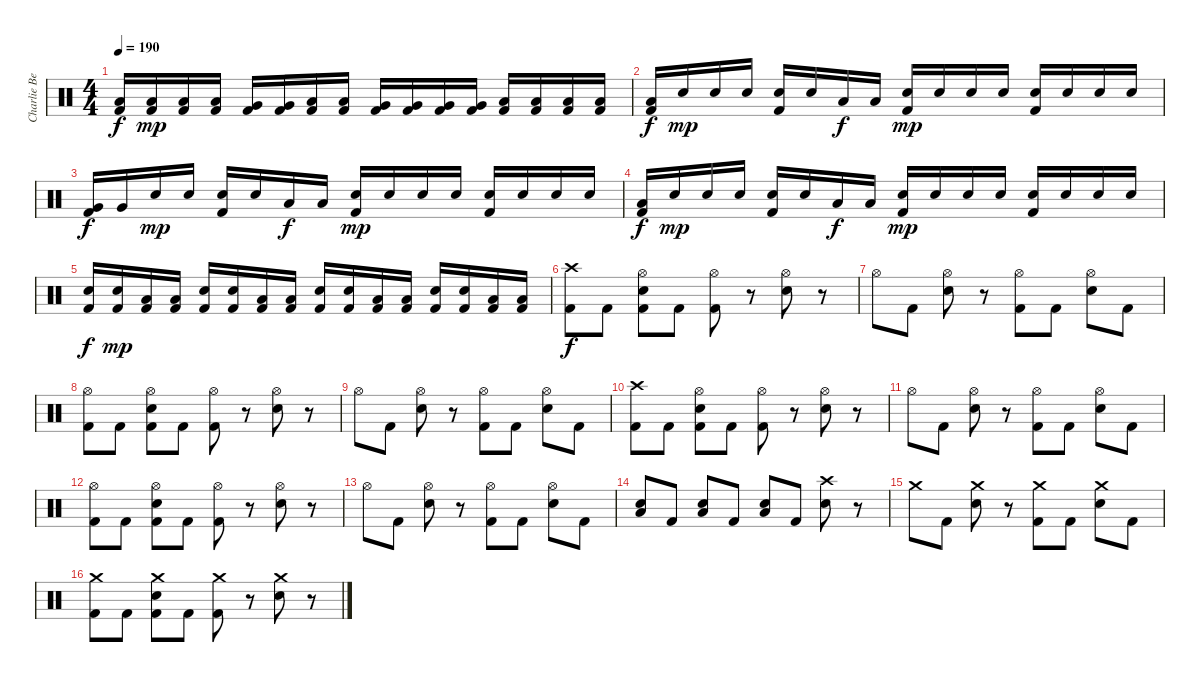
\track ("Charlie Benante" "Charlie Be") {instrument percussion}
\staff {score}
\articulation defaults
\ts (4 4)
\tempo 190
\clef neutral
\ks c
("Kick (hit) 2" "Low Tom (hit)").16{dy f} ("Kick (hit) 2" "Low Tom (hit)").16{dy mp} ("Kick (hit) 2" "Low Tom (hit)").16 ("Kick (hit) 2" "Low Tom (hit)").16 ("Kick (hit) 2" "Very Low Tom (hit)").16 ("Kick (hit) 2" "Very Low Tom (hit)").16 ("Kick (hit) 2" "Low Floor Tom (hit)").16 ("Kick (hit) 2" "Low Floor Tom (hit)").16 ("Kick (hit) 2" "Very Low Tom (hit)").16 ("Kick (hit) 2" "Very Low Tom (hit)").16 ("Kick (hit) 2" "Very Low Tom (hit)").16 ("Kick (hit) 2" "Very Low Tom (hit)").16 ("Kick (hit) 2" "Low Floor Tom (hit)").16 ("Kick (hit) 2" "Low Floor Tom (hit)").16 ("Kick (hit) 2" "Low Floor Tom (hit)").16 ("Kick (hit) 2" "Low Floor Tom (hit)").16 |
("Kick (hit) 2" "Low Tom (hit)").16{dy f} "Snare (hit) 2".16{dy mp} "Snare (hit) 2".16 "Snare (hit) 2".16 ("Kick (hit) 2" "Snare (hit) 2").16 "Snare (hit) 2".16 "Low Tom (hit)".16{dy f} "Low Tom (hit)".16 ("Kick (hit) 2" "Snare (hit) 2").16{dy mp} "Snare (hit) 2".16 "Snare (hit) 2".16 "Snare (hit) 2".16 ("Kick (hit) 2" "Snare (hit) 2").16 "Snare (hit) 2".16 "Snare (hit) 2".16 "Snare (hit) 2".16 |
("Kick (hit) 2" "Very Low Tom (hit)").16{dy f} "Very Low Tom (hit)".16 "Snare (hit) 2".16{dy mp} "Snare (hit) 2".16 ("Kick (hit) 2" "Snare (hit) 2").16 "Snare (hit) 2".16 "Low Floor Tom (hit)".16{dy f} "Low Floor Tom (hit)".16 ("Kick (hit) 2" "Snare (hit) 2").16{dy mp} "Snare (hit) 2".16 "Snare (hit) 2".16 "Snare (hit) 2".16 ("Kick (hit) 2" "Snare (hit) 2").16 "Snare (hit) 2".16 "Snare (hit) 2".16 "Snare (hit) 2".16 |
("Kick (hit) 2" "Low Tom (hit)").16{dy f} "Snare (hit) 2".16{dy mp} "Snare (hit) 2".16 "Snare (hit) 2".16 ("Kick (hit) 2" "Snare (hit) 2").16 "Snare (hit) 2".16 "Low Tom (hit)".16{dy f} "Low Tom (hit)".16 ("Kick (hit) 2" "Snare (hit) 2").16{dy mp} "Snare (hit) 2".16 "Snare (hit) 2".16 "Snare (hit) 2".16 ("Kick (hit) 2" "Snare (hit) 2").16 "Snare (hit) 2".16 "Snare (hit) 2".16 "Snare (hit) 2".16 |
("Kick (hit) 2" "Snare (hit) 2").16{dy f} ("Kick (hit) 2" "Snare (hit) 2").16{dy mp} ("Kick (hit) 2" "Low Tom (hit)").16 ("Kick (hit) 2" "Low Tom (hit)").16 ("Kick (hit) 2" "Snare (hit) 2").16 ("Kick (hit) 2" "Snare (hit) 2").16 ("Kick (hit) 2" "Low Tom (hit)").16 ("Kick (hit) 2" "Low Tom (hit)").16 ("Kick (hit) 2" "Snare (hit) 2").16 ("Kick (hit) 2" "Snare (hit) 2").16 ("Kick (hit) 2" "Low Tom (hit)").16 ("Kick (hit) 2" "Low Tom (hit)").16 ("Kick (hit) 2" "Snare (hit) 2").16 ("Kick (hit) 2" "Snare (hit) 2").16 ("Kick (hit) 2" "Low Tom (hit)").16 ("Kick (hit) 2" "Low Tom (hit)").16 |
("Kick (hit) 2" "Crash high (hit)").8{dy f} "Kick (hit) 2".8 ("Kick (hit) 2" "Hi-Hat (open)" "Snare (hit) 2").8 "Kick (hit) 2".8 ("Kick (hit) 2" "Hi-Hat (open)").8 r.8 ("Snare (hit) 2" "Hi-Hat (open)").8 r.8 |
"Hi-Hat (open)".8 "Kick (hit) 2".8 ("Snare (hit) 2" "Hi-Hat (open)").8 r.8 ("Kick (hit) 2" "Hi-Hat (open)").8 "Kick (hit) 2".8 ("Snare (hit) 2" "Hi-Hat (open)").8 "Kick (hit) 2".8 |
("Kick (hit) 2" "Hi-Hat (open)").8 "Kick (hit) 2".8 ("Kick (hit) 2" "Hi-Hat (open)" "Snare (hit) 2").8 "Kick (hit) 2".8 ("Kick (hit) 2" "Hi-Hat (open)").8 r.8 ("Snare (hit) 2" "Hi-Hat (open)").8 r.8 |
"Hi-Hat (open)".8 "Kick (hit) 2".8 ("Snare (hit) 2" "Hi-Hat (open)").8 r.8 ("Kick (hit) 2" "Hi-Hat (open)").8 "Kick (hit) 2".8 ("Snare (hit) 2" "Hi-Hat (open)").8 "Kick (hit) 2".8 |
("Kick (hit) 2" "Crash high (hit)").8 "Kick (hit) 2".8 ("Kick (hit) 2" "Hi-Hat (open)" "Snare (hit) 2").8 "Kick (hit) 2".8 ("Kick (hit) 2" "Hi-Hat (open)").8 r.8 ("Snare (hit) 2" "Hi-Hat (open)").8 r.8 |
"Hi-Hat (open)".8 "Kick (hit) 2".8 ("Snare (hit) 2" "Hi-Hat (open)").8 r.8 ("Kick (hit) 2" "Hi-Hat (open)").8 "Kick (hit) 2".8 ("Snare (hit) 2" "Hi-Hat (open)").8 "Kick (hit) 2".8 |
("Kick (hit) 2" "Hi-Hat (open)").8 "Kick (hit) 2".8 ("Kick (hit) 2" "Hi-Hat (open)" "Snare (hit) 2").8 "Kick (hit) 2".8 ("Kick (hit) 2" "Hi-Hat (open)").8 r.8 ("Snare (hit) 2" "Hi-Hat (open)").8 r.8 |
"Hi-Hat (open)".8 "Kick (hit) 2".8 ("Snare (hit) 2" "Hi-Hat (open)").8 r.8 ("Kick (hit) 2" "Hi-Hat (open)").8 "Kick (hit) 2".8 ("Snare (hit) 2" "Hi-Hat (open)").8 "Kick (hit) 2".8 |
("Snare (hit) 2" "Low Tom (hit)").8 "Kick (hit) 2".8 ("Snare (hit) 2" "Low Tom (hit)").8 "Kick (hit) 2".8 ("Snare (hit) 2" "Low Tom (hit)").8 "Kick (hit) 2".8 ("Snare (hit) 2" "Crash high (hit)").8 r.8 |
"Crash medium (hit)".8 "Kick (hit) 2".8 ("Snare (hit) 2" "Crash medium (hit)").8 r.8 ("Kick (hit) 2" "Crash medium (hit)").8 "Kick (hit) 2".8 ("Snare (hit) 2" "Crash medium (hit)").8 "Kick (hit) 2".8 |
("Kick (hit) 2" "Crash medium (hit)").8 "Kick (hit) 2".8 ("Kick (hit) 2" "Crash medium (hit)" "Snare (hit) 2").8 "Kick (hit) 2".8 ("Kick (hit) 2" "Crash medium (hit)").8 r.8 ("Snare (hit) 2" "Crash medium (hit)").8 r.8
